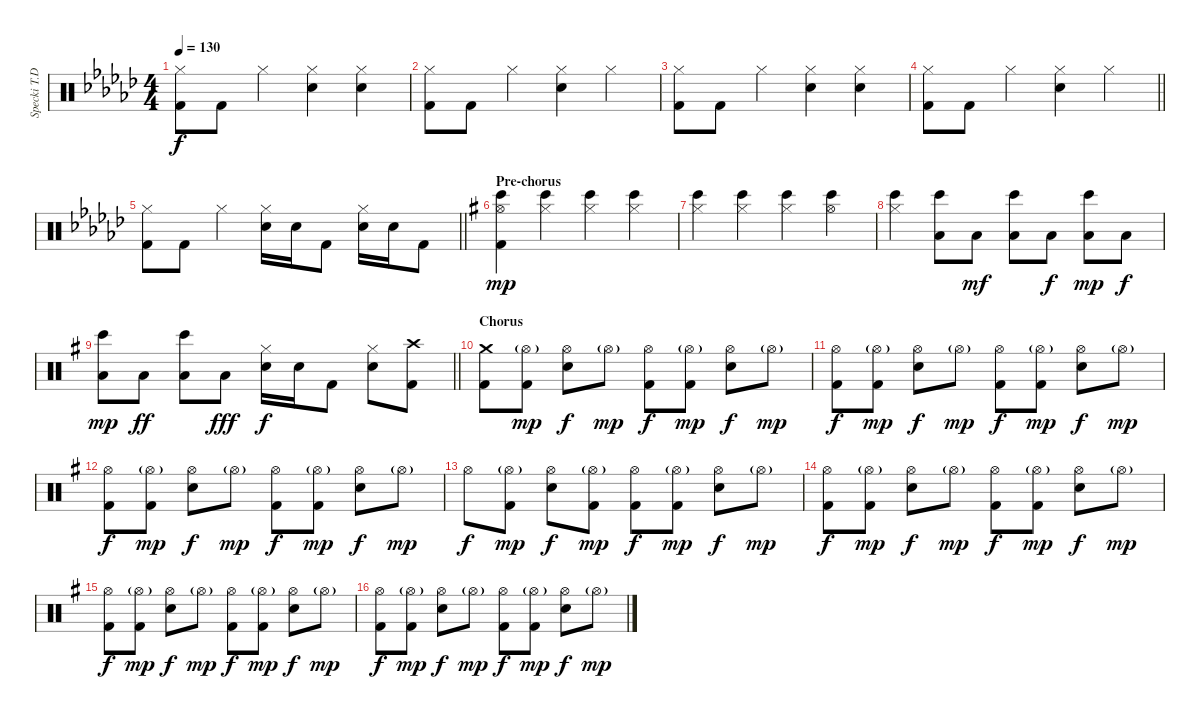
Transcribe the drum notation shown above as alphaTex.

\track ("Specki T.D. (Drums)" "Specki T.D") {instrument percussion}
\staff {score}
\articulation defaults
\ts (4 4)
\tempo 130
\clef neutral
\ks ebminor
("Hi-Hat (closed)" "Kick (hit) 2").8{dy f} "Kick (hit) 2".8 "Hi-Hat (closed)".4 ("Hi-Hat (closed)" "Snare (hit) 2").4 ("Hi-Hat (closed)" "Snare (hit) 2").4 |
("Hi-Hat (closed)" "Kick (hit) 2").8 "Kick (hit) 2".8 "Hi-Hat (closed)".4 ("Hi-Hat (closed)" "Snare (hit) 2").4 "Hi-Hat (closed)".4 |
("Hi-Hat (closed)" "Kick (hit) 2").8 "Kick (hit) 2".8 "Hi-Hat (closed)".4 ("Hi-Hat (closed)" "Snare (hit) 2").4 ("Hi-Hat (closed)" "Snare (hit) 2").4 |
\barLineRight lightlight
("Hi-Hat (closed)" "Kick (hit) 2").8 "Kick (hit) 2".8 "Hi-Hat (closed)".4 ("Hi-Hat (closed)" "Snare (hit) 2").4 "Hi-Hat (closed)".4 |
\barLineRight lightlight
("Hi-Hat (closed)" "Kick (hit) 2").8 "Kick (hit) 2".8 "Hi-Hat (closed)".4 ("Hi-Hat (closed)" "Snare (hit) 2").16 "Snare (hit) 2".16 "Kick (hit) 2".8 ("Hi-Hat (closed)" "Snare (hit) 2").16 "Snare (hit) 2".16 "Kick (hit) 2".8 |
\section ("" "Pre-chorus")
\ks g
("Hi-Hat (open)" "Bongo High (hit)" "Kick (hit) 2").4{dy mp} ("Hi-Hat (closed)" "Bongo High (hit)").4 ("Hi-Hat (closed)" "Bongo High (hit)").4 ("Hi-Hat (closed)" "Bongo High (hit)").4 |
("Hi-Hat (closed)" "Bongo High (hit)").4 ("Hi-Hat (closed)" "Bongo High (hit)").4 ("Hi-Hat (closed)" "Bongo High (hit)").4 ("Hi-Hat (open)" "Bongo High (hit)").4 |
("Hi-Hat (closed)" "Bongo High (hit)").4 ("Bongo High (hit)" "Low Floor Tom (hit)").8 "Low Floor Tom (hit)".8{dy mf} ("Bongo High (hit)" "Low Floor Tom (hit)").8 "Low Floor Tom (hit)".8{dy f} ("Bongo High (hit)" "Low Floor Tom (hit)").8{dy mp} "Low Floor Tom (hit)".8{dy f} |
\barLineRight lightlight
("Bongo High (hit)" "Low Floor Tom (hit)").8{dy mp} "Low Floor Tom (hit)".8{dy ff} ("Bongo High (hit)" "Low Floor Tom (hit)").8 "Low Floor Tom (hit)".8{dy fff} ("Hi-Hat (closed)" "Snare (hit) 2").16{dy f} "Snare (hit) 2".16 "Kick (hit) 2".8 ("Hi-Hat (closed)" "Snare (hit) 2").8 ("Crash high (hit)" "Kick (hit) 2").8 |
\section ("" "Chorus")
("Crash medium (hit)" "Kick (hit) 2").8 ("Hi-Hat (open)"{g} "Kick (hit) 2").8{dy mp} ("Hi-Hat (open)" "Snare (hit) 2").8{dy f} "Hi-Hat (open)"{g}.8{dy mp} ("Hi-Hat (open)" "Kick (hit) 2").8{dy f} ("Hi-Hat (open)"{g} "Kick (hit) 2").8{dy mp} ("Hi-Hat (open)" "Snare (hit) 2").8{dy f} "Hi-Hat (open)"{g}.8{dy mp} |
("Hi-Hat (open)" "Kick (hit) 2").8{dy f} ("Hi-Hat (open)"{g} "Kick (hit) 2").8{dy mp} ("Hi-Hat (open)" "Snare (hit) 2").8{dy f} "Hi-Hat (open)"{g}.8{dy mp} ("Hi-Hat (open)" "Kick (hit) 2").8{dy f} ("Hi-Hat (open)"{g} "Kick (hit) 2").8{dy mp} ("Hi-Hat (open)" "Snare (hit) 2").8{dy f} "Hi-Hat (open)"{g}.8{dy mp} |
("Hi-Hat (open)" "Kick (hit) 2").8{dy f} ("Hi-Hat (open)"{g} "Kick (hit) 2").8{dy mp} ("Hi-Hat (open)" "Snare (hit) 2").8{dy f} "Hi-Hat (open)"{g}.8{dy mp} ("Hi-Hat (open)" "Kick (hit) 2").8{dy f} ("Hi-Hat (open)"{g} "Kick (hit) 2").8{dy mp} ("Hi-Hat (open)" "Snare (hit) 2").8{dy f} "Hi-Hat (open)"{g}.8{dy mp} |
"Hi-Hat (open)".8{dy f} ("Hi-Hat (open)"{g} "Kick (hit) 2").8{dy mp} ("Hi-Hat (open)" "Snare (hit) 2").8{dy f} ("Hi-Hat (open)"{g} "Kick (hit) 2").8{dy mp} ("Hi-Hat (open)" "Kick (hit) 2").8{dy f} ("Hi-Hat (open)"{g} "Kick (hit) 2").8{dy mp} ("Hi-Hat (open)" "Snare (hit) 2").8{dy f} "Hi-Hat (open)"{g}.8{dy mp} |
("Hi-Hat (open)" "Kick (hit) 2").8{dy f} ("Hi-Hat (open)"{g} "Kick (hit) 2").8{dy mp} ("Hi-Hat (open)" "Snare (hit) 2").8{dy f} "Hi-Hat (open)"{g}.8{dy mp} ("Hi-Hat (open)" "Kick (hit) 2").8{dy f} ("Hi-Hat (open)"{g} "Kick (hit) 2").8{dy mp} ("Hi-Hat (open)" "Snare (hit) 2").8{dy f} "Hi-Hat (open)"{g}.8{dy mp} |
("Hi-Hat (open)" "Kick (hit) 2").8{dy f} ("Hi-Hat (open)"{g} "Kick (hit) 2").8{dy mp} ("Hi-Hat (open)" "Snare (hit) 2").8{dy f} "Hi-Hat (open)"{g}.8{dy mp} ("Hi-Hat (open)" "Kick (hit) 2").8{dy f} ("Hi-Hat (open)"{g} "Kick (hit) 2").8{dy mp} ("Hi-Hat (open)" "Snare (hit) 2").8{dy f} "Hi-Hat (open)"{g}.8{dy mp} |
("Hi-Hat (open)" "Kick (hit) 2").8{dy f} ("Hi-Hat (open)"{g} "Kick (hit) 2").8{dy mp} ("Hi-Hat (open)" "Snare (hit) 2").8{dy f} "Hi-Hat (open)"{g}.8{dy mp} ("Hi-Hat (open)" "Kick (hit) 2").8{dy f} ("Hi-Hat (open)"{g} "Kick (hit) 2").8{dy mp} ("Hi-Hat (open)" "Snare (hit) 2").8{dy f} "Hi-Hat (open)"{g}.8{dy mp}
